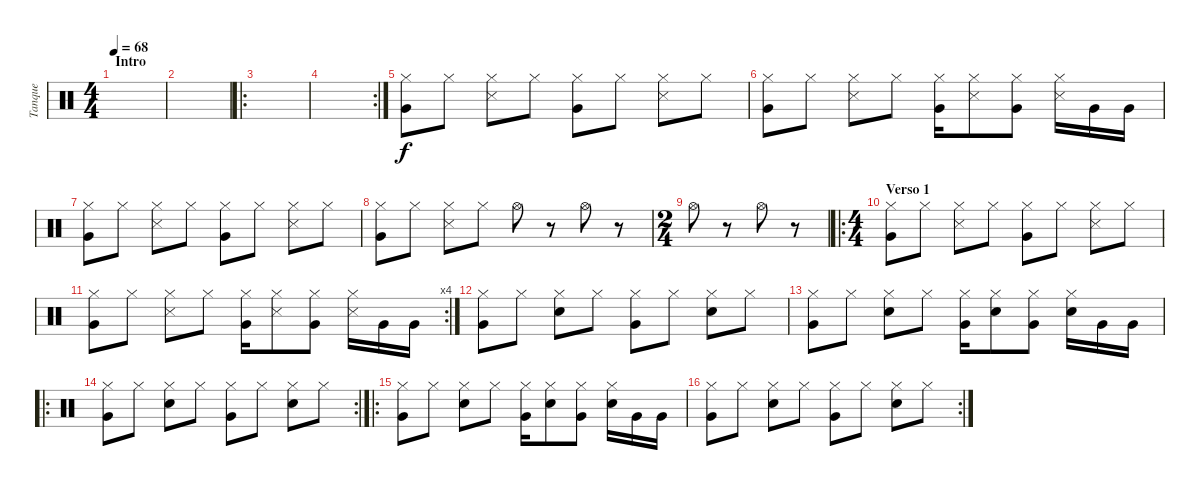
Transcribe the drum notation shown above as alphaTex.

\track ("Tanque" "Tanque") {instrument percussion}
\staff {score}
\articulation defaults
\ts (4 4)
\section ("" "Intro")
\tempo 68
\clef neutral
\ks c
|
|
\ro
|
\rc 2
|
("Hi-Hat (closed)" "Very Low Tom (hit)").8 "Hi-Hat (closed)".8 ("Hi-Hat (closed)" "Snare (side stick) 3").8 "Hi-Hat (closed)".8 ("Hi-Hat (closed)" "Very Low Tom (hit)").8 "Hi-Hat (closed)".8 ("Hi-Hat (closed)" "Snare (side stick) 3").8 "Hi-Hat (closed)".8 |
("Hi-Hat (closed)" "Very Low Tom (hit)").8 "Hi-Hat (closed)".8 ("Hi-Hat (closed)" "Snare (side stick) 3").8 "Hi-Hat (closed)".8 ("Hi-Hat (closed)" "Very Low Tom (hit)").16 ("Hi-Hat (closed)" "Snare (side stick) 3").8 ("Hi-Hat (closed)" "Very Low Tom (hit)").8 ("Hi-Hat (closed)" "Snare (side stick) 3").16 "Very Low Tom (hit)".16 "Very Low Tom (hit)".16 |
("Hi-Hat (closed)" "Very Low Tom (hit)").8 "Hi-Hat (closed)".8 ("Hi-Hat (closed)" "Snare (side stick) 3").8 "Hi-Hat (closed)".8 ("Hi-Hat (closed)" "Very Low Tom (hit)").8 "Hi-Hat (closed)".8 ("Hi-Hat (closed)" "Snare (side stick) 3").8 "Hi-Hat (closed)".8 |
("Hi-Hat (closed)" "Very Low Tom (hit)").8 "Hi-Hat (closed)".8 ("Hi-Hat (closed)" "Snare (side stick) 3").8 "Hi-Hat (closed)".8 "Hi-Hat (open)".8 r.8 "Hi-Hat (open)".8 r.8 |
\ts (2 4)
"Hi-Hat (open)".8 r.8 "Hi-Hat (open)".8 r.8 |
\ro
\ts (4 4)
\section ("" "Verso 1")
("Hi-Hat (closed)" "Very Low Tom (hit)").8 "Hi-Hat (closed)".8 ("Hi-Hat (closed)" "Snare (side stick) 3").8 "Hi-Hat (closed)".8 ("Hi-Hat (closed)" "Very Low Tom (hit)").8 "Hi-Hat (closed)".8 ("Hi-Hat (closed)" "Snare (side stick) 3").8 "Hi-Hat (closed)".8 |
\rc 4
("Hi-Hat (closed)" "Very Low Tom (hit)").8 "Hi-Hat (closed)".8 ("Hi-Hat (closed)" "Snare (side stick) 3").8 "Hi-Hat (closed)".8 ("Hi-Hat (closed)" "Very Low Tom (hit)").16 ("Hi-Hat (closed)" "Snare (side stick) 3").8 ("Hi-Hat (closed)" "Very Low Tom (hit)").8 ("Hi-Hat (closed)" "Snare (side stick) 3").16 "Very Low Tom (hit)".16 "Very Low Tom (hit)".16 |
("Hi-Hat (closed)" "Very Low Tom (hit)").8 "Hi-Hat (closed)".8 ("Hi-Hat (closed)" "Snare (hit) 2").8 "Hi-Hat (closed)".8 ("Hi-Hat (closed)" "Very Low Tom (hit)").8 "Hi-Hat (closed)".8 ("Hi-Hat (closed)" "Snare (hit) 2").8 "Hi-Hat (closed)".8 |
("Hi-Hat (closed)" "Very Low Tom (hit)").8 "Hi-Hat (closed)".8 ("Hi-Hat (closed)" "Snare (hit) 2").8 "Hi-Hat (closed)".8 ("Hi-Hat (closed)" "Very Low Tom (hit)").16 ("Hi-Hat (closed)" "Snare (hit) 2").8 ("Hi-Hat (closed)" "Very Low Tom (hit)").8 ("Hi-Hat (closed)" "Snare (hit) 2").16 "Very Low Tom (hit)".16 "Very Low Tom (hit)".16 |
\ro
\rc 2
("Hi-Hat (closed)" "Very Low Tom (hit)").8 "Hi-Hat (closed)".8 ("Hi-Hat (closed)" "Snare (hit) 2").8 "Hi-Hat (closed)".8 ("Hi-Hat (closed)" "Very Low Tom (hit)").8 "Hi-Hat (closed)".8 ("Hi-Hat (closed)" "Snare (hit) 2").8 "Hi-Hat (closed)".8 |
\ro
("Hi-Hat (closed)" "Very Low Tom (hit)").8 "Hi-Hat (closed)".8 ("Hi-Hat (closed)" "Snare (hit) 2").8 "Hi-Hat (closed)".8 ("Hi-Hat (closed)" "Very Low Tom (hit)").16 ("Hi-Hat (closed)" "Snare (hit) 2").8 ("Hi-Hat (closed)" "Very Low Tom (hit)").8 ("Hi-Hat (closed)" "Snare (hit) 2").16 "Very Low Tom (hit)".16 "Very Low Tom (hit)".16 |
\rc 2
("Hi-Hat (closed)" "Very Low Tom (hit)").8 "Hi-Hat (closed)".8 ("Hi-Hat (closed)" "Snare (hit) 2").8 "Hi-Hat (closed)".8 ("Hi-Hat (closed)" "Very Low Tom (hit)").8 "Hi-Hat (closed)".8 ("Hi-Hat (closed)" "Snare (hit) 2").8 "Hi-Hat (closed)".8
